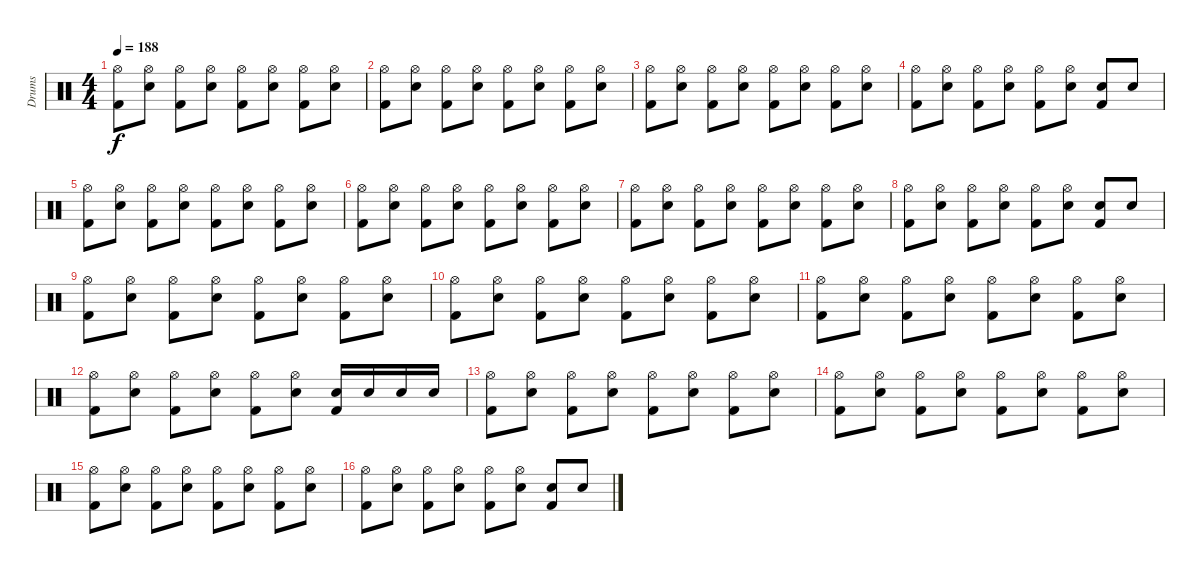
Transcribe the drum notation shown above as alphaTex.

\track ("Drums" "Drums") {instrument percussion}
\staff {score}
\articulation defaults
\ts (4 4)
\tempo 188
\clef neutral
\ks c
("Hi-Hat (open)" "Kick (hit) 2").8{dy f} ("Hi-Hat (open)" "Snare (hit) 2").8 ("Hi-Hat (open)" "Kick (hit) 2").8 ("Hi-Hat (open)" "Snare (hit) 2").8 ("Hi-Hat (open)" "Kick (hit) 2").8 ("Hi-Hat (open)" "Snare (hit) 2").8 ("Hi-Hat (open)" "Kick (hit) 2").8 ("Hi-Hat (open)" "Snare (hit) 2").8 |
("Hi-Hat (open)" "Kick (hit) 2").8 ("Hi-Hat (open)" "Snare (hit) 2").8 ("Hi-Hat (open)" "Kick (hit) 2").8 ("Hi-Hat (open)" "Snare (hit) 2").8 ("Hi-Hat (open)" "Kick (hit) 2").8 ("Hi-Hat (open)" "Snare (hit) 2").8 ("Hi-Hat (open)" "Kick (hit) 2").8 ("Hi-Hat (open)" "Snare (hit) 2").8 |
("Hi-Hat (open)" "Kick (hit) 2").8 ("Hi-Hat (open)" "Snare (hit) 2").8 ("Hi-Hat (open)" "Kick (hit) 2").8 ("Hi-Hat (open)" "Snare (hit) 2").8 ("Hi-Hat (open)" "Kick (hit) 2").8 ("Hi-Hat (open)" "Snare (hit) 2").8 ("Hi-Hat (open)" "Kick (hit) 2").8 ("Hi-Hat (open)" "Snare (hit) 2").8 |
("Hi-Hat (open)" "Kick (hit) 2").8 ("Hi-Hat (open)" "Snare (hit) 2").8 ("Hi-Hat (open)" "Kick (hit) 2").8 ("Hi-Hat (open)" "Snare (hit) 2").8 ("Hi-Hat (open)" "Kick (hit) 2").8 ("Hi-Hat (open)" "Snare (hit) 2").8 ("Snare (hit) 2" "Kick (hit) 2").8 "Snare (hit) 2".8 |
("Hi-Hat (open)" "Kick (hit) 2").8 ("Hi-Hat (open)" "Snare (hit) 2").8 ("Hi-Hat (open)" "Kick (hit) 2").8 ("Hi-Hat (open)" "Snare (hit) 2").8 ("Hi-Hat (open)" "Kick (hit) 2").8 ("Hi-Hat (open)" "Snare (hit) 2").8 ("Hi-Hat (open)" "Kick (hit) 2").8 ("Hi-Hat (open)" "Snare (hit) 2").8 |
("Hi-Hat (open)" "Kick (hit) 2").8 ("Hi-Hat (open)" "Snare (hit) 2").8 ("Hi-Hat (open)" "Kick (hit) 2").8 ("Hi-Hat (open)" "Snare (hit) 2").8 ("Hi-Hat (open)" "Kick (hit) 2").8 ("Hi-Hat (open)" "Snare (hit) 2").8 ("Hi-Hat (open)" "Kick (hit) 2").8 ("Hi-Hat (open)" "Snare (hit) 2").8 |
("Hi-Hat (open)" "Kick (hit) 2").8 ("Hi-Hat (open)" "Snare (hit) 2").8 ("Hi-Hat (open)" "Kick (hit) 2").8 ("Hi-Hat (open)" "Snare (hit) 2").8 ("Hi-Hat (open)" "Kick (hit) 2").8 ("Hi-Hat (open)" "Snare (hit) 2").8 ("Hi-Hat (open)" "Kick (hit) 2").8 ("Hi-Hat (open)" "Snare (hit) 2").8 |
("Hi-Hat (open)" "Kick (hit) 2").8 ("Hi-Hat (open)" "Snare (hit) 2").8 ("Hi-Hat (open)" "Kick (hit) 2").8 ("Hi-Hat (open)" "Snare (hit) 2").8 ("Hi-Hat (open)" "Kick (hit) 2").8 ("Hi-Hat (open)" "Snare (hit) 2").8 ("Snare (hit) 2" "Kick (hit) 2").8 "Snare (hit) 2".8 |
("Hi-Hat (open)" "Kick (hit) 2").8 ("Hi-Hat (open)" "Snare (hit) 2").8 ("Hi-Hat (open)" "Kick (hit) 2").8 ("Hi-Hat (open)" "Snare (hit) 2").8 ("Hi-Hat (open)" "Kick (hit) 2").8 ("Hi-Hat (open)" "Snare (hit) 2").8 ("Hi-Hat (open)" "Kick (hit) 2").8 ("Hi-Hat (open)" "Snare (hit) 2").8 |
("Hi-Hat (open)" "Kick (hit) 2").8 ("Hi-Hat (open)" "Snare (hit) 2").8 ("Hi-Hat (open)" "Kick (hit) 2").8 ("Hi-Hat (open)" "Snare (hit) 2").8 ("Hi-Hat (open)" "Kick (hit) 2").8 ("Hi-Hat (open)" "Snare (hit) 2").8 ("Hi-Hat (open)" "Kick (hit) 2").8 ("Hi-Hat (open)" "Snare (hit) 2").8 |
("Hi-Hat (open)" "Kick (hit) 2").8 ("Hi-Hat (open)" "Snare (hit) 2").8 ("Hi-Hat (open)" "Kick (hit) 2").8 ("Hi-Hat (open)" "Snare (hit) 2").8 ("Hi-Hat (open)" "Kick (hit) 2").8 ("Hi-Hat (open)" "Snare (hit) 2").8 ("Hi-Hat (open)" "Kick (hit) 2").8 ("Hi-Hat (open)" "Snare (hit) 2").8 |
("Hi-Hat (open)" "Kick (hit) 2").8 ("Hi-Hat (open)" "Snare (hit) 2").8 ("Hi-Hat (open)" "Kick (hit) 2").8 ("Hi-Hat (open)" "Snare (hit) 2").8 ("Hi-Hat (open)" "Kick (hit) 2").8 ("Hi-Hat (open)" "Snare (hit) 2").8 ("Snare (hit) 2" "Kick (hit) 2").16 "Snare (hit) 2".16 "Snare (hit) 2".16 "Snare (hit) 2".16 |
("Hi-Hat (open)" "Kick (hit) 2").8 ("Hi-Hat (open)" "Snare (hit) 2").8 ("Hi-Hat (open)" "Kick (hit) 2").8 ("Hi-Hat (open)" "Snare (hit) 2").8 ("Hi-Hat (open)" "Kick (hit) 2").8 ("Hi-Hat (open)" "Snare (hit) 2").8 ("Hi-Hat (open)" "Kick (hit) 2").8 ("Hi-Hat (open)" "Snare (hit) 2").8 |
("Hi-Hat (open)" "Kick (hit) 2").8 ("Hi-Hat (open)" "Snare (hit) 2").8 ("Hi-Hat (open)" "Kick (hit) 2").8 ("Hi-Hat (open)" "Snare (hit) 2").8 ("Hi-Hat (open)" "Kick (hit) 2").8 ("Hi-Hat (open)" "Snare (hit) 2").8 ("Hi-Hat (open)" "Kick (hit) 2").8 ("Hi-Hat (open)" "Snare (hit) 2").8 |
("Hi-Hat (open)" "Kick (hit) 2").8 ("Hi-Hat (open)" "Snare (hit) 2").8 ("Hi-Hat (open)" "Kick (hit) 2").8 ("Hi-Hat (open)" "Snare (hit) 2").8 ("Hi-Hat (open)" "Kick (hit) 2").8 ("Hi-Hat (open)" "Snare (hit) 2").8 ("Hi-Hat (open)" "Kick (hit) 2").8 ("Hi-Hat (open)" "Snare (hit) 2").8 |
("Hi-Hat (open)" "Kick (hit) 2").8 ("Hi-Hat (open)" "Snare (hit) 2").8 ("Hi-Hat (open)" "Kick (hit) 2").8 ("Hi-Hat (open)" "Snare (hit) 2").8 ("Hi-Hat (open)" "Kick (hit) 2").8 ("Hi-Hat (open)" "Snare (hit) 2").8 ("Snare (hit) 2" "Kick (hit) 2").8 "Snare (hit) 2".8
